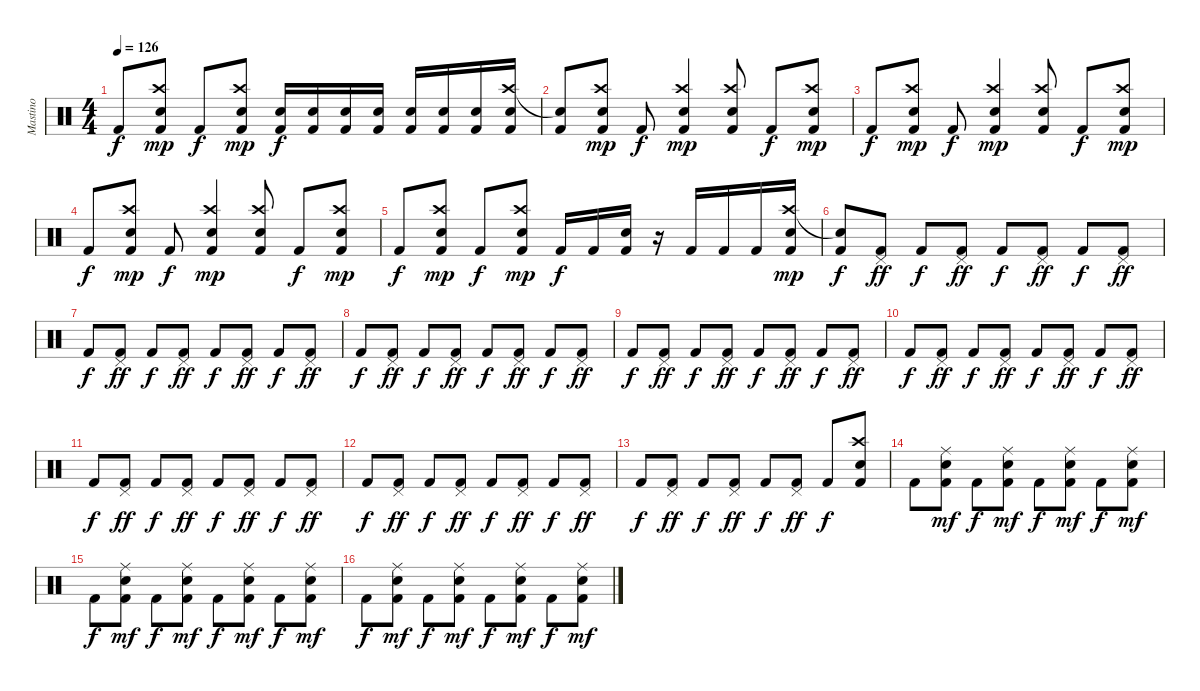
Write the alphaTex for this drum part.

\track ("Mastino" "Mastino") {instrument percussion}
\staff {score}
\articulation defaults
\ts (4 4)
\tempo 126
\clef neutral
\ks c "Kick (hit) 2".8{dy f}
("Crash high (hit)" "Electric Snare (hit)" "Kick (hit) 2").8{dy mp} "Kick (hit) 2".8{dy f} ("Crash high (hit)" "Electric Snare (hit)" "Kick (hit) 2").8{dy mp} ("Electric Snare (hit)" "Kick (hit) 2").16{dy f} ("Electric Snare (hit)" "Kick (hit) 2").16 ("Electric Snare (hit)" "Kick (hit) 2").16 ("Electric Snare (hit)" "Kick (hit) 2").16 ("Electric Snare (hit)" "Kick (hit) 2").16 ("Electric Snare (hit)" "Kick (hit) 2").16 ("Electric Snare (hit)" "Kick (hit) 2").16 ("Crash high (hit)" "Electric Snare (hit)" "Kick (hit) 2").16 |
("Snare (hit)"{t} "Kick (hit) 2").8 ("Crash high (hit)" "Electric Snare (hit)" "Kick (hit) 2").8{dy mp} "Kick (hit) 2".8{dy f} ("Crash high (hit)" "Electric Snare (hit)" "Kick (hit) 2").4{dy mp} ("Crash high (hit)" "Electric Snare (hit)" "Kick (hit) 2").8 "Kick (hit) 2".8{dy f} ("Crash high (hit)" "Electric Snare (hit)" "Kick (hit) 2").8{dy mp} |
"Kick (hit) 2".8{dy f} ("Crash high (hit)" "Electric Snare (hit)" "Kick (hit) 2").8{dy mp} "Kick (hit) 2".8{dy f} ("Crash high (hit)" "Electric Snare (hit)" "Kick (hit) 2").4{dy mp} ("Crash high (hit)" "Electric Snare (hit)" "Kick (hit) 2").8 "Kick (hit) 2".8{dy f} ("Crash high (hit)" "Electric Snare (hit)" "Kick (hit) 2").8{dy mp} |
"Kick (hit) 2".8{dy f} ("Crash high (hit)" "Electric Snare (hit)" "Kick (hit) 2").8{dy mp} "Kick (hit) 2".8{dy f} ("Crash high (hit)" "Electric Snare (hit)" "Kick (hit) 2").4{dy mp} ("Crash high (hit)" "Electric Snare (hit)" "Kick (hit) 2").8 "Kick (hit) 2".8{dy f} ("Crash high (hit)" "Electric Snare (hit)" "Kick (hit) 2").8{dy mp} |
"Kick (hit) 2".8{dy f} ("Crash high (hit)" "Electric Snare (hit)" "Kick (hit) 2").8{dy mp} "Kick (hit) 2".8{dy f} ("Crash high (hit)" "Electric Snare (hit)" "Kick (hit) 2").8{dy mp} "Kick (hit) 2".16{dy f} "Kick (hit) 2".16 ("Electric Snare (hit)" "Kick (hit) 2").16 r.16 "Kick (hit) 2".16 "Kick (hit) 2".16 "Kick (hit) 2".16 ("Crash high (hit)" "Electric Snare (hit)" "Kick (hit) 2").16{dy mp} |
("Snare (hit)"{t} "Kick (hit) 2").8{dy f} ("Pedal Hi-Hat (hit)" "Kick (hit) 2").8{dy ff} "Kick (hit) 2".8{dy f} ("Pedal Hi-Hat (hit)" "Kick (hit) 2").8{dy ff} "Kick (hit) 2".8{dy f} ("Pedal Hi-Hat (hit)" "Kick (hit) 2").8{dy ff} "Kick (hit) 2".8{dy f} ("Pedal Hi-Hat (hit)" "Kick (hit) 2").8{dy ff} |
"Kick (hit) 2".8{dy f} ("Pedal Hi-Hat (hit)" "Kick (hit) 2").8{dy ff} "Kick (hit) 2".8{dy f} ("Pedal Hi-Hat (hit)" "Kick (hit) 2").8{dy ff} "Kick (hit) 2".8{dy f} ("Pedal Hi-Hat (hit)" "Kick (hit) 2").8{dy ff} "Kick (hit) 2".8{dy f} ("Pedal Hi-Hat (hit)" "Kick (hit) 2").8{dy ff} |
"Kick (hit) 2".8{dy f} ("Pedal Hi-Hat (hit)" "Kick (hit) 2").8{dy ff} "Kick (hit) 2".8{dy f} ("Pedal Hi-Hat (hit)" "Kick (hit) 2").8{dy ff} "Kick (hit) 2".8{dy f} ("Pedal Hi-Hat (hit)" "Kick (hit) 2").8{dy ff} "Kick (hit) 2".8{dy f} ("Pedal Hi-Hat (hit)" "Kick (hit) 2").8{dy ff} |
"Kick (hit) 2".8{dy f} ("Pedal Hi-Hat (hit)" "Kick (hit) 2").8{dy ff} "Kick (hit) 2".8{dy f} ("Pedal Hi-Hat (hit)" "Kick (hit) 2").8{dy ff} "Kick (hit) 2".8{dy f} ("Pedal Hi-Hat (hit)" "Kick (hit) 2").8{dy ff} "Kick (hit) 2".8{dy f} ("Pedal Hi-Hat (hit)" "Kick (hit) 2").8{dy ff} |
"Kick (hit) 2".8{dy f} ("Pedal Hi-Hat (hit)" "Kick (hit) 2").8{dy ff} "Kick (hit) 2".8{dy f} ("Pedal Hi-Hat (hit)" "Kick (hit) 2").8{dy ff} "Kick (hit) 2".8{dy f} ("Pedal Hi-Hat (hit)" "Kick (hit) 2").8{dy ff} "Kick (hit) 2".8{dy f} ("Pedal Hi-Hat (hit)" "Kick (hit) 2").8{dy ff} |
"Kick (hit) 2".8{dy f} ("Pedal Hi-Hat (hit)" "Kick (hit) 2").8{dy ff} "Kick (hit) 2".8{dy f} ("Pedal Hi-Hat (hit)" "Kick (hit) 2").8{dy ff} "Kick (hit) 2".8{dy f} ("Pedal Hi-Hat (hit)" "Kick (hit) 2").8{dy ff} "Kick (hit) 2".8{dy f} ("Pedal Hi-Hat (hit)" "Kick (hit) 2").8{dy ff} |
"Kick (hit) 2".8{dy f} ("Pedal Hi-Hat (hit)" "Kick (hit) 2").8{dy ff} "Kick (hit) 2".8{dy f} ("Pedal Hi-Hat (hit)" "Kick (hit) 2").8{dy ff} "Kick (hit) 2".8{dy f} ("Pedal Hi-Hat (hit)" "Kick (hit) 2").8{dy ff} "Kick (hit) 2".8{dy f} ("Pedal Hi-Hat (hit)" "Kick (hit) 2").8{dy ff} |
"Kick (hit) 2".8{dy f} ("Pedal Hi-Hat (hit)" "Kick (hit) 2").8{dy ff} "Kick (hit) 2".8{dy f} ("Pedal Hi-Hat (hit)" "Kick (hit) 2").8{dy ff} "Kick (hit) 2".8{dy f} ("Pedal Hi-Hat (hit)" "Kick (hit) 2").8{dy ff} "Kick (hit) 2".8{dy f} ("Crash high (hit)" "Electric Snare (hit)" "Kick (hit) 2").8 |
"Kick (hit) 2".8 ("Ride (middle)" "Electric Snare (hit)" "Kick (hit) 2").8{dy mf} "Kick (hit) 2".8{dy f} ("Ride (middle)" "Electric Snare (hit)" "Kick (hit) 2").8{dy mf} "Kick (hit) 2".8{dy f} ("Ride (middle)" "Electric Snare (hit)" "Kick (hit) 2").8{dy mf} "Kick (hit) 2".8{dy f} ("Ride (middle)" "Electric Snare (hit)" "Kick (hit) 2").8{dy mf} |
"Kick (hit) 2".8{dy f} ("Ride (middle)" "Electric Snare (hit)" "Kick (hit) 2").8{dy mf} "Kick (hit) 2".8{dy f} ("Ride (middle)" "Electric Snare (hit)" "Kick (hit) 2").8{dy mf} "Kick (hit) 2".8{dy f} ("Ride (middle)" "Electric Snare (hit)" "Kick (hit) 2").8{dy mf} "Kick (hit) 2".8{dy f} ("Ride (middle)" "Electric Snare (hit)" "Kick (hit) 2").8{dy mf} |
"Kick (hit) 2".8{dy f} ("Ride (middle)" "Electric Snare (hit)" "Kick (hit) 2").8{dy mf} "Kick (hit) 2".8{dy f} ("Ride (middle)" "Electric Snare (hit)" "Kick (hit) 2").8{dy mf} "Kick (hit) 2".8{dy f} ("Ride (middle)" "Electric Snare (hit)" "Kick (hit) 2").8{dy mf} "Kick (hit) 2".8{dy f} ("Ride (middle)" "Electric Snare (hit)" "Kick (hit) 2").8{dy mf}
